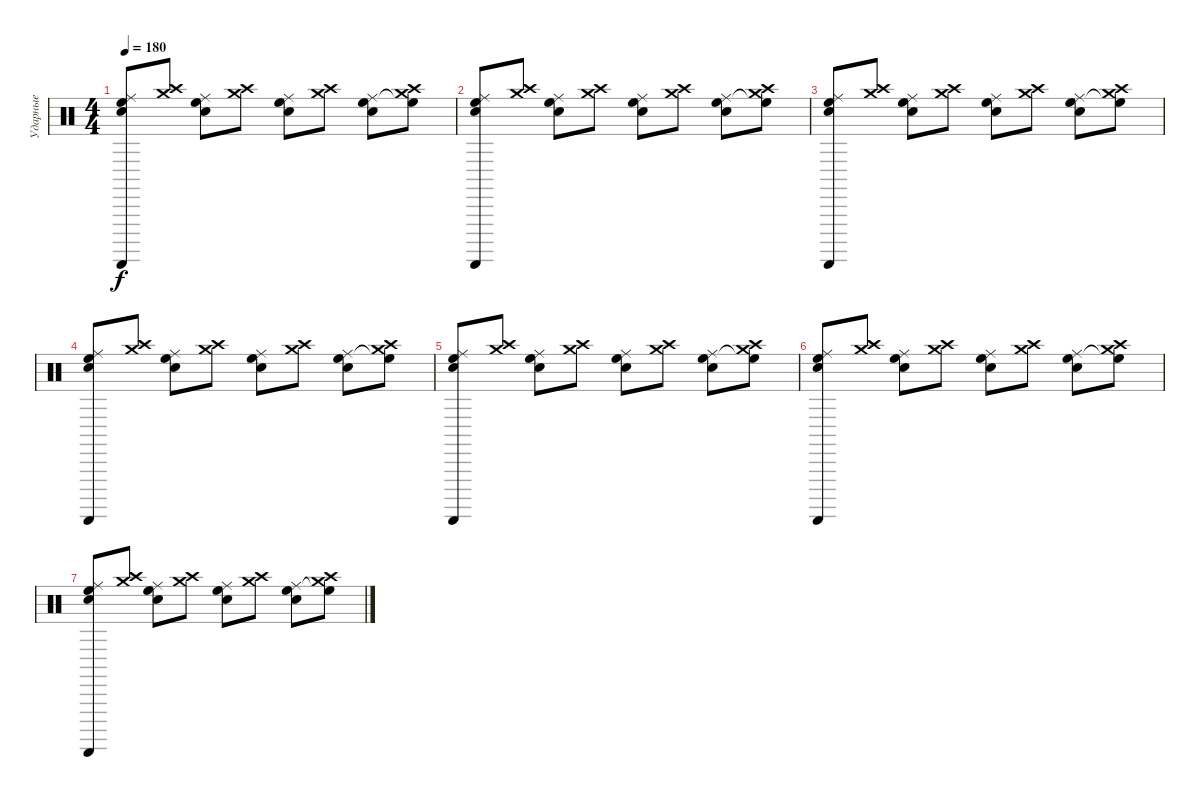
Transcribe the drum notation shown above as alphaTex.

\track ("Ударные" "Ударные") {instrument percussion}
\staff {score}
\articulation defaults
\ts (4 4)
\tempo 180
\clef neutral
\ks c
("Guiro (scrap-return)" "High Floor Tom (hit)" "Ride (middle)" "Snare (hit) 2").8{dy f} ("Crash high (hit)" "Crash medium (hit)").8 ("High Floor Tom (hit)" "Ride (middle)" "Snare (hit) 2").8 ("Crash high (hit)" "Crash medium (hit)").8 ("High Floor Tom (hit)" "Ride (middle)" "Snare (hit) 2").8 ("Crash high (hit)" "Crash medium (hit)").8 ("High Floor Tom (hit)" "Ride (middle)" "Snare (hit) 2").8 ("High Floor Tom (hit)"{t} "Crash high (hit)" "Crash medium (hit)").8 |
("Guiro (scrap-return)" "High Floor Tom (hit)" "Ride (middle)" "Snare (hit) 2").8{volume 0} ("Crash high (hit)" "Crash medium (hit)").8 ("High Floor Tom (hit)" "Ride (middle)" "Snare (hit) 2").8 ("Crash high (hit)" "Crash medium (hit)").8 ("High Floor Tom (hit)" "Ride (middle)" "Snare (hit) 2").8 ("Crash high (hit)" "Crash medium (hit)").8 ("High Floor Tom (hit)" "Ride (middle)" "Snare (hit) 2").8 ("High Floor Tom (hit)"{t} "Crash high (hit)" "Crash medium (hit)").8 |
("Guiro (scrap-return)" "High Floor Tom (hit)" "Ride (middle)" "Snare (hit) 2").8 ("Crash high (hit)" "Crash medium (hit)").8 ("High Floor Tom (hit)" "Ride (middle)" "Snare (hit) 2").8 ("Crash high (hit)" "Crash medium (hit)").8 ("High Floor Tom (hit)" "Ride (middle)" "Snare (hit) 2").8 ("Crash high (hit)" "Crash medium (hit)").8 ("High Floor Tom (hit)" "Ride (middle)" "Snare (hit) 2").8 ("High Floor Tom (hit)"{t} "Crash high (hit)" "Crash medium (hit)").8 |
("Guiro (scrap-return)" "High Floor Tom (hit)" "Ride (middle)" "Snare (hit) 2").8 ("Crash high (hit)" "Crash medium (hit)").8 ("High Floor Tom (hit)" "Ride (middle)" "Snare (hit) 2").8 ("Crash high (hit)" "Crash medium (hit)").8 ("High Floor Tom (hit)" "Ride (middle)" "Snare (hit) 2").8 ("Crash high (hit)" "Crash medium (hit)").8 ("High Floor Tom (hit)" "Ride (middle)" "Snare (hit) 2").8 ("High Floor Tom (hit)"{t} "Crash high (hit)" "Crash medium (hit)").8 |
("Guiro (scrap-return)" "High Floor Tom (hit)" "Ride (middle)" "Snare (hit) 2").8 ("Crash high (hit)" "Crash medium (hit)").8 ("High Floor Tom (hit)" "Ride (middle)" "Snare (hit) 2").8 ("Crash high (hit)" "Crash medium (hit)").8 ("High Floor Tom (hit)" "Ride (middle)" "Snare (hit) 2").8 ("Crash high (hit)" "Crash medium (hit)").8 ("High Floor Tom (hit)" "Ride (middle)" "Snare (hit) 2").8 ("High Floor Tom (hit)"{t} "Crash high (hit)" "Crash medium (hit)").8 |
("Guiro (scrap-return)" "High Floor Tom (hit)" "Ride (middle)" "Snare (hit) 2").8 ("Crash high (hit)" "Crash medium (hit)").8 ("High Floor Tom (hit)" "Ride (middle)" "Snare (hit) 2").8 ("Crash high (hit)" "Crash medium (hit)").8 ("High Floor Tom (hit)" "Ride (middle)" "Snare (hit) 2").8 ("Crash high (hit)" "Crash medium (hit)").8 ("High Floor Tom (hit)" "Ride (middle)" "Snare (hit) 2").8 ("High Floor Tom (hit)"{t} "Crash high (hit)" "Crash medium (hit)").8 |
("Guiro (scrap-return)" "High Floor Tom (hit)" "Ride (middle)" "Snare (hit) 2").8 ("Crash high (hit)" "Crash medium (hit)").8 ("High Floor Tom (hit)" "Ride (middle)" "Snare (hit) 2").8 ("Crash high (hit)" "Crash medium (hit)").8 ("High Floor Tom (hit)" "Ride (middle)" "Snare (hit) 2").8 ("Crash high (hit)" "Crash medium (hit)").8 ("High Floor Tom (hit)" "Ride (middle)" "Snare (hit) 2").8 ("High Floor Tom (hit)"{t} "Crash high (hit)" "Crash medium (hit)").8
